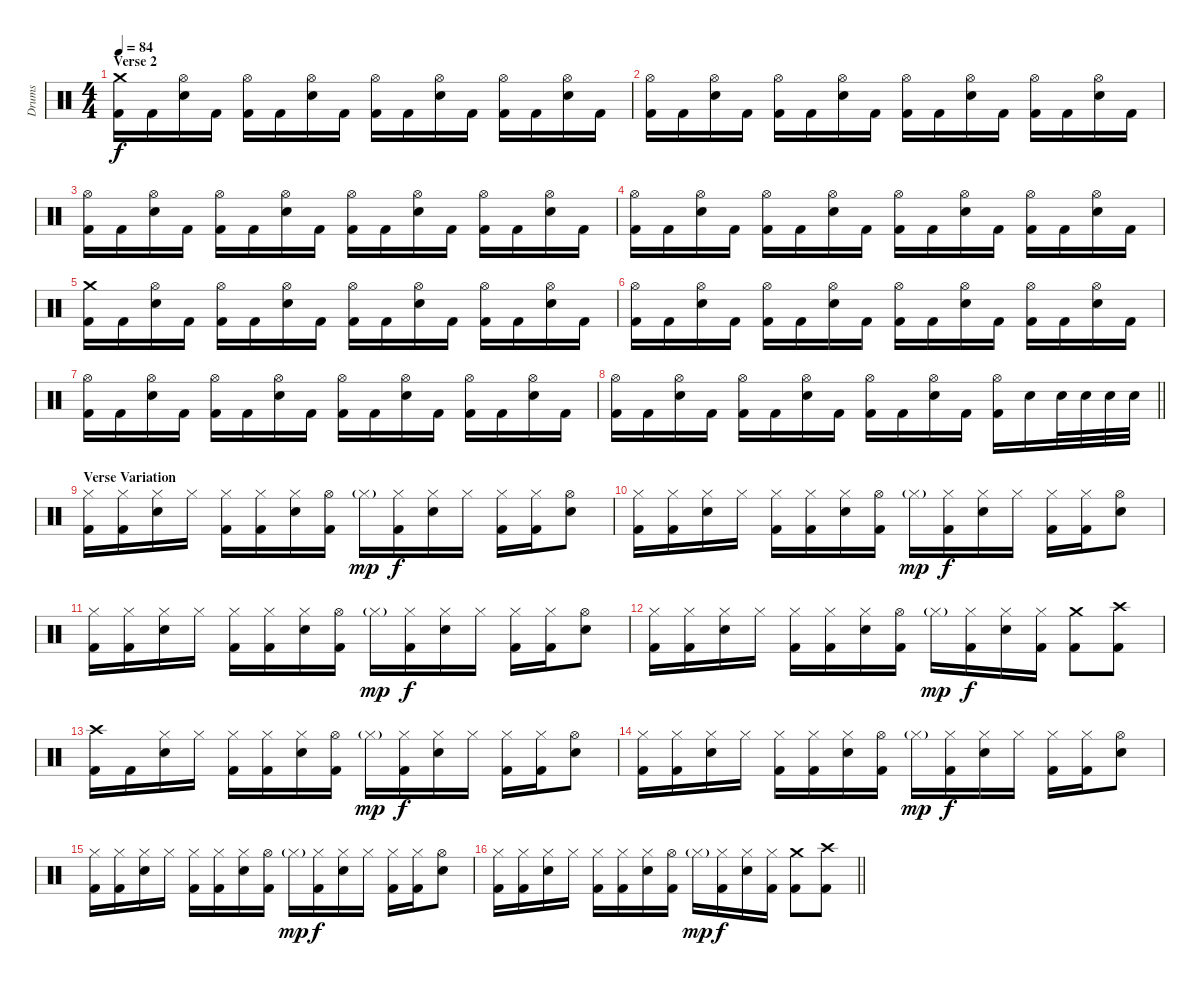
\track ("Drums" "Drums") {instrument percussion}
\staff {score}
\articulation defaults
\ts (4 4)
\section ("" "Verse 2")
\tempo 84
\clef neutral
\ks c
("Crash medium (hit)" "Kick (hit) 2").16{dy f} "Kick (hit) 2".16 ("Hi-Hat (open)" "Snare (hit) 2").16 "Kick (hit) 2".16 ("Hi-Hat (open)" "Kick (hit) 2").16 "Kick (hit) 2".16 ("Hi-Hat (open)" "Snare (hit) 2").16 "Kick (hit) 2".16 ("Hi-Hat (open)" "Kick (hit) 2").16 "Kick (hit) 2".16 ("Hi-Hat (open)" "Snare (hit) 2").16 "Kick (hit) 2".16 ("Hi-Hat (open)" "Kick (hit) 2").16 "Kick (hit) 2".16 ("Hi-Hat (open)" "Snare (hit) 2").16 "Kick (hit) 2".16 |
("Hi-Hat (open)" "Kick (hit) 2").16 "Kick (hit) 2".16 ("Hi-Hat (open)" "Snare (hit) 2").16 "Kick (hit) 2".16 ("Hi-Hat (open)" "Kick (hit) 2").16 "Kick (hit) 2".16 ("Hi-Hat (open)" "Snare (hit) 2").16 "Kick (hit) 2".16 ("Hi-Hat (open)" "Kick (hit) 2").16 "Kick (hit) 2".16 ("Hi-Hat (open)" "Snare (hit) 2").16 "Kick (hit) 2".16 ("Hi-Hat (open)" "Kick (hit) 2").16 "Kick (hit) 2".16 ("Hi-Hat (open)" "Snare (hit) 2").16 "Kick (hit) 2".16 |
("Hi-Hat (open)" "Kick (hit) 2").16 "Kick (hit) 2".16 ("Hi-Hat (open)" "Snare (hit) 2").16 "Kick (hit) 2".16 ("Hi-Hat (open)" "Kick (hit) 2").16 "Kick (hit) 2".16 ("Hi-Hat (open)" "Snare (hit) 2").16 "Kick (hit) 2".16 ("Hi-Hat (open)" "Kick (hit) 2").16 "Kick (hit) 2".16 ("Hi-Hat (open)" "Snare (hit) 2").16 "Kick (hit) 2".16 ("Hi-Hat (open)" "Kick (hit) 2").16 "Kick (hit) 2".16 ("Hi-Hat (open)" "Snare (hit) 2").16 "Kick (hit) 2".16 |
("Hi-Hat (open)" "Kick (hit) 2").16 "Kick (hit) 2".16 ("Hi-Hat (open)" "Snare (hit) 2").16 "Kick (hit) 2".16 ("Hi-Hat (open)" "Kick (hit) 2").16 "Kick (hit) 2".16 ("Hi-Hat (open)" "Snare (hit) 2").16 "Kick (hit) 2".16 ("Hi-Hat (open)" "Kick (hit) 2").16 "Kick (hit) 2".16 ("Hi-Hat (open)" "Snare (hit) 2").16 "Kick (hit) 2".16 ("Hi-Hat (open)" "Kick (hit) 2").16 "Kick (hit) 2".16 ("Hi-Hat (open)" "Snare (hit) 2").16 "Kick (hit) 2".16 |
("Crash medium (hit)" "Kick (hit) 2").16 "Kick (hit) 2".16 ("Hi-Hat (open)" "Snare (hit) 2").16 "Kick (hit) 2".16 ("Hi-Hat (open)" "Kick (hit) 2").16 "Kick (hit) 2".16 ("Hi-Hat (open)" "Snare (hit) 2").16 "Kick (hit) 2".16 ("Hi-Hat (open)" "Kick (hit) 2").16 "Kick (hit) 2".16 ("Hi-Hat (open)" "Snare (hit) 2").16 "Kick (hit) 2".16 ("Hi-Hat (open)" "Kick (hit) 2").16 "Kick (hit) 2".16 ("Hi-Hat (open)" "Snare (hit) 2").16 "Kick (hit) 2".16 |
("Hi-Hat (open)" "Kick (hit) 2").16 "Kick (hit) 2".16 ("Hi-Hat (open)" "Snare (hit) 2").16 "Kick (hit) 2".16 ("Hi-Hat (open)" "Kick (hit) 2").16 "Kick (hit) 2".16 ("Hi-Hat (open)" "Snare (hit) 2").16 "Kick (hit) 2".16 ("Hi-Hat (open)" "Kick (hit) 2").16 "Kick (hit) 2".16 ("Hi-Hat (open)" "Snare (hit) 2").16 "Kick (hit) 2".16 ("Hi-Hat (open)" "Kick (hit) 2").16 "Kick (hit) 2".16 ("Hi-Hat (open)" "Snare (hit) 2").16 "Kick (hit) 2".16 |
("Hi-Hat (open)" "Kick (hit) 2").16 "Kick (hit) 2".16 ("Hi-Hat (open)" "Snare (hit) 2").16 "Kick (hit) 2".16 ("Hi-Hat (open)" "Kick (hit) 2").16 "Kick (hit) 2".16 ("Hi-Hat (open)" "Snare (hit) 2").16 "Kick (hit) 2".16 ("Hi-Hat (open)" "Kick (hit) 2").16 "Kick (hit) 2".16 ("Hi-Hat (open)" "Snare (hit) 2").16 "Kick (hit) 2".16 ("Hi-Hat (open)" "Kick (hit) 2").16 "Kick (hit) 2".16 ("Hi-Hat (open)" "Snare (hit) 2").16 "Kick (hit) 2".16 |
\barLineRight lightlight
("Hi-Hat (open)" "Kick (hit) 2").16 "Kick (hit) 2".16 ("Hi-Hat (open)" "Snare (hit) 2").16 "Kick (hit) 2".16 ("Hi-Hat (open)" "Kick (hit) 2").16 "Kick (hit) 2".16 ("Hi-Hat (open)" "Snare (hit) 2").16 "Kick (hit) 2".16 ("Hi-Hat (open)" "Kick (hit) 2").16 "Kick (hit) 2".16 ("Hi-Hat (open)" "Snare (hit) 2").16 "Kick (hit) 2".16 ("Hi-Hat (open)" "Kick (hit) 2").16 "Snare (hit) 2".16 "Snare (hit) 2".32 "Snare (hit) 2".32 "Snare (hit) 2".32 "Snare (hit) 2".32 |
\section ("" "Verse Variation")
("Hi-Hat (closed)" "Kick (hit) 2").16 ("Hi-Hat (closed)" "Kick (hit) 2").16 ("Hi-Hat (closed)" "Snare (hit) 2").16 "Hi-Hat (closed)".16 ("Hi-Hat (closed)" "Kick (hit) 2").16 ("Hi-Hat (closed)" "Kick (hit) 2").16 ("Hi-Hat (closed)" "Snare (hit) 2").16 ("Hi-Hat (open)" "Kick (hit) 2").16 "Hi-Hat (closed)"{g}.16{dy mp} ("Hi-Hat (closed)" "Kick (hit) 2").16{dy f} ("Hi-Hat (closed)" "Snare (hit) 2").16 "Hi-Hat (closed)".16 ("Hi-Hat (closed)" "Kick (hit) 2").16 ("Hi-Hat (closed)" "Kick (hit) 2").16 ("Hi-Hat (open)" "Snare (hit) 2").8 |
("Hi-Hat (closed)" "Kick (hit) 2").16 ("Hi-Hat (closed)" "Kick (hit) 2").16 ("Hi-Hat (closed)" "Snare (hit) 2").16 "Hi-Hat (closed)".16 ("Hi-Hat (closed)" "Kick (hit) 2").16 ("Hi-Hat (closed)" "Kick (hit) 2").16 ("Hi-Hat (closed)" "Snare (hit) 2").16 ("Hi-Hat (open)" "Kick (hit) 2").16 "Hi-Hat (closed)"{g}.16{dy mp} ("Hi-Hat (closed)" "Kick (hit) 2").16{dy f} ("Hi-Hat (closed)" "Snare (hit) 2").16 "Hi-Hat (closed)".16 ("Hi-Hat (closed)" "Kick (hit) 2").16 ("Hi-Hat (closed)" "Kick (hit) 2").16 ("Hi-Hat (open)" "Snare (hit) 2").8 |
("Hi-Hat (closed)" "Kick (hit) 2").16 ("Hi-Hat (closed)" "Kick (hit) 2").16 ("Hi-Hat (closed)" "Snare (hit) 2").16 "Hi-Hat (closed)".16 ("Hi-Hat (closed)" "Kick (hit) 2").16 ("Hi-Hat (closed)" "Kick (hit) 2").16 ("Hi-Hat (closed)" "Snare (hit) 2").16 ("Hi-Hat (open)" "Kick (hit) 2").16 "Hi-Hat (closed)"{g}.16{dy mp} ("Hi-Hat (closed)" "Kick (hit) 2").16{dy f} ("Hi-Hat (closed)" "Snare (hit) 2").16 "Hi-Hat (closed)".16 ("Hi-Hat (closed)" "Kick (hit) 2").16 ("Hi-Hat (closed)" "Kick (hit) 2").16 ("Hi-Hat (open)" "Snare (hit) 2").8 |
("Hi-Hat (closed)" "Kick (hit) 2").16 ("Hi-Hat (closed)" "Kick (hit) 2").16 ("Hi-Hat (closed)" "Snare (hit) 2").16 "Hi-Hat (closed)".16 ("Hi-Hat (closed)" "Kick (hit) 2").16 ("Hi-Hat (closed)" "Kick (hit) 2").16 ("Hi-Hat (closed)" "Snare (hit) 2").16 ("Hi-Hat (open)" "Kick (hit) 2").16 "Hi-Hat (closed)"{g}.16{dy mp} ("Hi-Hat (closed)" "Kick (hit) 2").16{dy f} ("Hi-Hat (closed)" "Snare (hit) 2").16 ("Hi-Hat (closed)" "Kick (hit) 2").16 ("Crash medium (hit)" "Kick (hit) 2").8 ("Crash high (hit)" "Kick (hit) 2").8 |
("Crash high (hit)" "Kick (hit) 2").16 "Kick (hit) 2".16 ("Hi-Hat (closed)" "Snare (hit) 2").16 "Hi-Hat (closed)".16 ("Hi-Hat (closed)" "Kick (hit) 2").16 ("Hi-Hat (closed)" "Kick (hit) 2").16 ("Hi-Hat (closed)" "Snare (hit) 2").16 ("Hi-Hat (open)" "Kick (hit) 2").16 "Hi-Hat (closed)"{g}.16{dy mp} ("Hi-Hat (closed)" "Kick (hit) 2").16{dy f} ("Hi-Hat (closed)" "Snare (hit) 2").16 "Hi-Hat (closed)".16 ("Hi-Hat (closed)" "Kick (hit) 2").16 ("Hi-Hat (closed)" "Kick (hit) 2").16 ("Hi-Hat (open)" "Snare (hit) 2").8 |
("Hi-Hat (closed)" "Kick (hit) 2").16 ("Hi-Hat (closed)" "Kick (hit) 2").16 ("Hi-Hat (closed)" "Snare (hit) 2").16 "Hi-Hat (closed)".16 ("Hi-Hat (closed)" "Kick (hit) 2").16 ("Hi-Hat (closed)" "Kick (hit) 2").16 ("Hi-Hat (closed)" "Snare (hit) 2").16 ("Hi-Hat (open)" "Kick (hit) 2").16 "Hi-Hat (closed)"{g}.16{dy mp} ("Hi-Hat (closed)" "Kick (hit) 2").16{dy f} ("Hi-Hat (closed)" "Snare (hit) 2").16 "Hi-Hat (closed)".16 ("Hi-Hat (closed)" "Kick (hit) 2").16 ("Hi-Hat (closed)" "Kick (hit) 2").16 ("Hi-Hat (open)" "Snare (hit) 2").8 |
("Hi-Hat (closed)" "Kick (hit) 2").16 ("Hi-Hat (closed)" "Kick (hit) 2").16 ("Hi-Hat (closed)" "Snare (hit) 2").16 "Hi-Hat (closed)".16 ("Hi-Hat (closed)" "Kick (hit) 2").16 ("Hi-Hat (closed)" "Kick (hit) 2").16 ("Hi-Hat (closed)" "Snare (hit) 2").16 ("Hi-Hat (open)" "Kick (hit) 2").16 "Hi-Hat (closed)"{g}.16{dy mp} ("Hi-Hat (closed)" "Kick (hit) 2").16{dy f} ("Hi-Hat (closed)" "Snare (hit) 2").16 "Hi-Hat (closed)".16 ("Hi-Hat (closed)" "Kick (hit) 2").16 ("Hi-Hat (closed)" "Kick (hit) 2").16 ("Hi-Hat (open)" "Snare (hit) 2").8 |
\barLineRight lightlight
("Hi-Hat (closed)" "Kick (hit) 2").16 ("Hi-Hat (closed)" "Kick (hit) 2").16 ("Hi-Hat (closed)" "Snare (hit) 2").16 "Hi-Hat (closed)".16 ("Hi-Hat (closed)" "Kick (hit) 2").16 ("Hi-Hat (closed)" "Kick (hit) 2").16 ("Hi-Hat (closed)" "Snare (hit) 2").16 ("Hi-Hat (open)" "Kick (hit) 2").16 "Hi-Hat (closed)"{g}.16{dy mp} ("Hi-Hat (closed)" "Kick (hit) 2").16{dy f} ("Hi-Hat (closed)" "Snare (hit) 2").16 ("Hi-Hat (closed)" "Kick (hit) 2").16 ("Crash medium (hit)" "Kick (hit) 2").8 ("Crash high (hit)" "Kick (hit) 2").8
